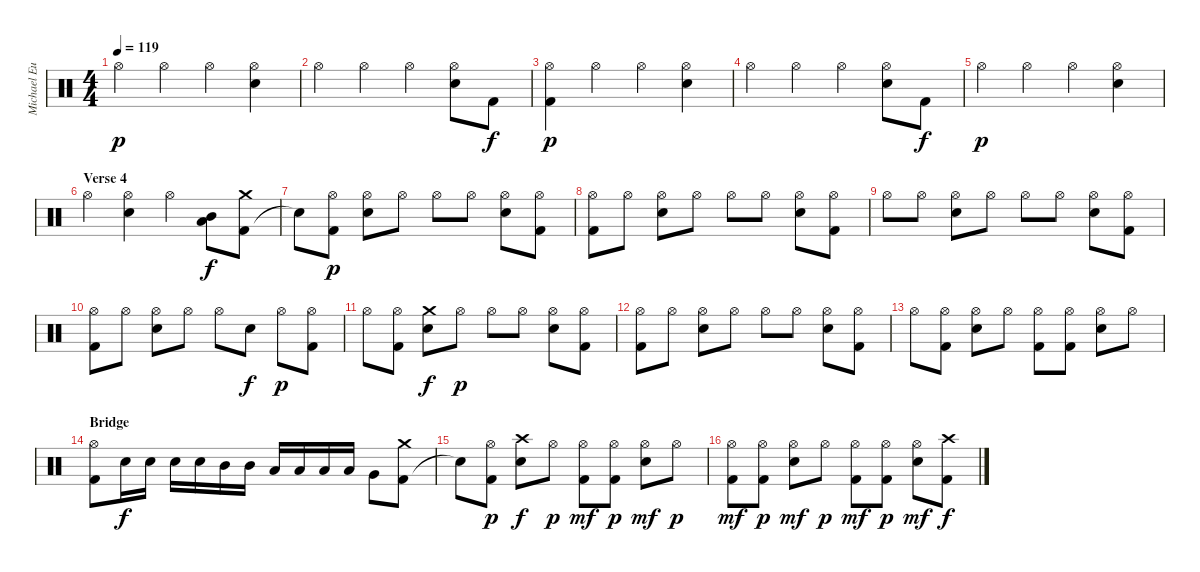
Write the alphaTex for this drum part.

\track ("Michael Eurich" "Michael Eu") {instrument percussion}
\staff {score}
\articulation defaults
\ts (4 4)
\tempo 119
\clef neutral
\ks c "Hi-Hat (open)".4{dy p} "Hi-Hat (open)".4 "Hi-Hat (open)".4
("Hi-Hat (open)" "Snare (hit) 2").4 |
"Hi-Hat (open)".4 "Hi-Hat (open)".4 "Hi-Hat (open)".4 ("Hi-Hat (open)" "Snare (hit) 2").8 "Kick (hit) 2".8{dy f} |
("Kick (hit) 2" "Hi-Hat (open)").4{dy p} "Hi-Hat (open)".4 "Hi-Hat (open)".4 ("Hi-Hat (open)" "Snare (hit) 2").4 |
"Hi-Hat (open)".4 "Hi-Hat (open)".4 "Hi-Hat (open)".4 ("Hi-Hat (open)" "Snare (hit) 2").8 "Kick (hit) 2".8{dy f} |
"Hi-Hat (open)".4{dy p} "Hi-Hat (open)".4 "Hi-Hat (open)".4 ("Hi-Hat (open)" "Snare (hit) 2").4 |
\section ("" "Verse 4")
"Hi-Hat (open)".4 ("Hi-Hat (open)" "Snare (hit) 2").4 "Hi-Hat (open)".4 ("Low Tom (hit)" "Mid Tom (hit)").8{dy f} ("Kick (hit) 2" "Crash medium (hit)").8 |
"Snare (hit)"{t}.8 ("Kick (hit) 2" "Hi-Hat (open)").8{dy p} ("Hi-Hat (open)" "Snare (hit) 2").8 "Hi-Hat (open)".8 "Hi-Hat (open)".8 "Hi-Hat (open)".8 ("Hi-Hat (open)" "Snare (hit) 2").8 ("Kick (hit) 2" "Hi-Hat (open)").8 |
("Kick (hit) 2" "Hi-Hat (open)").8 "Hi-Hat (open)".8 ("Hi-Hat (open)" "Snare (hit) 2").8 "Hi-Hat (open)".8 "Hi-Hat (open)".8 "Hi-Hat (open)".8 ("Hi-Hat (open)" "Snare (hit) 2").8 ("Kick (hit) 2" "Hi-Hat (open)").8 |
"Hi-Hat (open)".8 "Hi-Hat (open)".8 ("Hi-Hat (open)" "Snare (hit) 2").8 "Hi-Hat (open)".8 "Hi-Hat (open)".8 "Hi-Hat (open)".8 ("Hi-Hat (open)" "Snare (hit) 2").8 ("Kick (hit) 2" "Hi-Hat (open)").8 |
("Kick (hit) 2" "Hi-Hat (open)").8 "Hi-Hat (open)".8 ("Hi-Hat (open)" "Snare (hit) 2").8 "Hi-Hat (open)".8 "Hi-Hat (open)".8 "Snare (hit) 2".8{dy f} "Hi-Hat (open)".8{dy p} ("Kick (hit) 2" "Hi-Hat (open)").8 |
"Hi-Hat (open)".8 ("Kick (hit) 2" "Hi-Hat (open)").8 ("Crash medium (hit)" "Snare (hit) 2").8{dy f} "Hi-Hat (open)".8{dy p} "Hi-Hat (open)".8 "Hi-Hat (open)".8 ("Hi-Hat (open)" "Snare (hit) 2").8 ("Kick (hit) 2" "Hi-Hat (open)").8 |
("Kick (hit) 2" "Hi-Hat (open)").8 "Hi-Hat (open)".8 ("Hi-Hat (open)" "Snare (hit) 2").8 "Hi-Hat (open)".8 "Hi-Hat (open)".8 "Hi-Hat (open)".8 ("Hi-Hat (open)" "Snare (hit) 2").8 ("Kick (hit) 2" "Hi-Hat (open)").8 |
"Hi-Hat (open)".8 ("Kick (hit) 2" "Hi-Hat (open)").8 ("Hi-Hat (open)" "Snare (hit) 2").8 "Hi-Hat (open)".8 ("Kick (hit) 2" "Hi-Hat (open)").8 ("Kick (hit) 2" "Hi-Hat (open)").8 ("Hi-Hat (open)" "Snare (hit) 2").8 "Hi-Hat (open)".8 |
\section ("" "Bridge")
("Kick (hit) 2" "Hi-Hat (open)").8 "Snare (hit) 2".16{dy f} "Snare (hit) 2".16 "Snare (hit) 2".16 "Snare (hit) 2".16 "Mid Tom (hit)".16 "Mid Tom (hit)".16 "Low Tom (hit)".16 "Low Tom (hit)".16 "Low Tom (hit)".16 "Low Tom (hit)".16 "Very Low Tom (hit)".8 ("Kick (hit) 2" "Crash medium (hit)").8 |
"Snare (hit)"{t}.8 ("Kick (hit) 2" "Hi-Hat (open)").8{dy p} ("Crash high (hit)" "Snare (hit) 2").8{dy f} "Hi-Hat (open)".8{dy p} ("Kick (hit) 2" "Hi-Hat (open)").8{dy mf} ("Kick (hit) 2" "Hi-Hat (open)").8{dy p} ("Hi-Hat (open)" "Snare (hit) 2").8{dy mf} "Hi-Hat (open)".8{dy p} |
("Kick (hit) 2" "Hi-Hat (open)").8{dy mf} ("Kick (hit) 2" "Hi-Hat (open)").8{dy p} ("Hi-Hat (open)" "Snare (hit) 2").8{dy mf} "Hi-Hat (open)".8{dy p} ("Kick (hit) 2" "Hi-Hat (open)").8{dy mf} ("Kick (hit) 2" "Hi-Hat (open)").8{dy p} ("Hi-Hat (open)" "Snare (hit) 2").8{dy mf} ("Kick (hit) 2" "Crash high (hit)").8{dy f}
